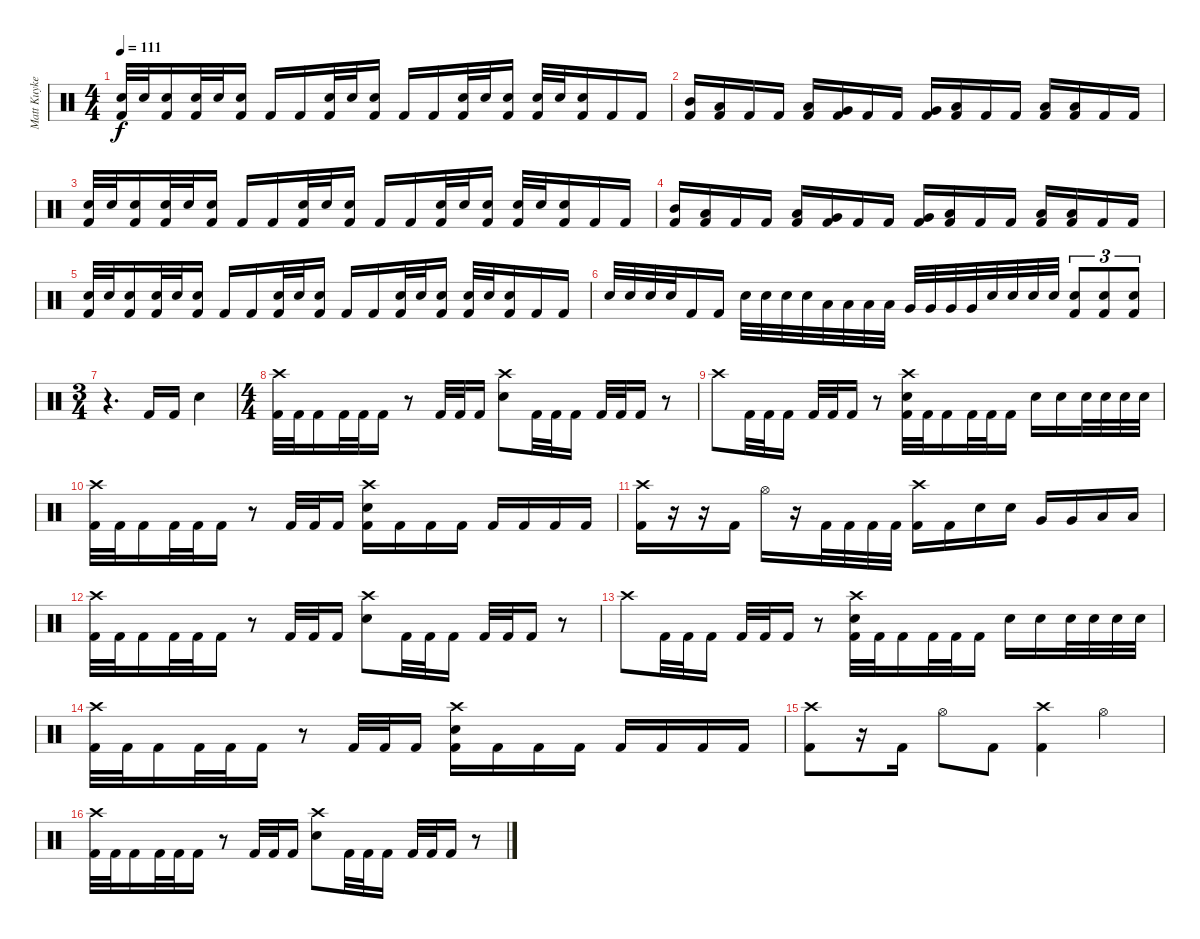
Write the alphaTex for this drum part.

\track ("Matt Kuykendall (Drums)" "Matt Kuyke") {instrument percussion}
\staff {score}
\articulation defaults
\ts (4 4)
\tempo 111
\clef neutral
\ks c
("Snare (hit) 2" "Kick (hit) 2").32{dy f} "Snare (hit) 2".32 ("Snare (hit) 2" "Kick (hit) 2").16 ("Snare (hit) 2" "Kick (hit) 2").32 "Snare (hit) 2".32 ("Snare (hit) 2" "Kick (hit) 2").16 "Kick (hit) 2".16 "Kick (hit) 2".16 ("Snare (hit) 2" "Kick (hit) 2").32 "Snare (hit) 2".32 ("Snare (hit) 2" "Kick (hit) 2").16 "Kick (hit) 2".16 "Kick (hit) 2".16 ("Snare (hit) 2" "Kick (hit) 2").32 "Snare (hit) 2".32 ("Snare (hit) 2" "Kick (hit) 2").16 ("Snare (hit) 2" "Kick (hit) 2").32 "Snare (hit) 2".32 ("Snare (hit) 2" "Kick (hit) 2").16 "Kick (hit) 2".16 "Kick (hit) 2".16 |
("Mid Tom (hit)" "Kick (hit) 2").16 ("Low Tom (hit)" "Kick (hit) 2").16 "Kick (hit) 2".16 "Kick (hit) 2".16 ("Low Tom (hit)" "Kick (hit) 2").16 ("Very Low Tom (hit)" "Kick (hit) 2").16 "Kick (hit) 2".16 "Kick (hit) 2".16 ("Very Low Tom (hit)" "Kick (hit) 2").16 ("Low Floor Tom (hit)" "Kick (hit) 2").16 "Kick (hit) 2".16 "Kick (hit) 2".16 ("Low Floor Tom (hit)" "Kick (hit) 2").16 ("Low Floor Tom (hit)" "Kick (hit) 2").16 "Kick (hit) 2".16 "Kick (hit) 2".16 |
("Snare (hit) 2" "Kick (hit) 2").32 "Snare (hit) 2".32 ("Snare (hit) 2" "Kick (hit) 2").16 ("Snare (hit) 2" "Kick (hit) 2").32 "Snare (hit) 2".32 ("Snare (hit) 2" "Kick (hit) 2").16 "Kick (hit) 2".16 "Kick (hit) 2".16 ("Snare (hit) 2" "Kick (hit) 2").32 "Snare (hit) 2".32 ("Snare (hit) 2" "Kick (hit) 2").16 "Kick (hit) 2".16 "Kick (hit) 2".16 ("Snare (hit) 2" "Kick (hit) 2").32 "Snare (hit) 2".32 ("Snare (hit) 2" "Kick (hit) 2").16 ("Snare (hit) 2" "Kick (hit) 2").32 "Snare (hit) 2".32 ("Snare (hit) 2" "Kick (hit) 2").16 "Kick (hit) 2".16 "Kick (hit) 2".16 |
("Mid Tom (hit)" "Kick (hit) 2").16 ("Low Tom (hit)" "Kick (hit) 2").16 "Kick (hit) 2".16 "Kick (hit) 2".16 ("Low Tom (hit)" "Kick (hit) 2").16 ("Very Low Tom (hit)" "Kick (hit) 2").16 "Kick (hit) 2".16 "Kick (hit) 2".16 ("Very Low Tom (hit)" "Kick (hit) 2").16 ("Low Floor Tom (hit)" "Kick (hit) 2").16 "Kick (hit) 2".16 "Kick (hit) 2".16 ("Low Floor Tom (hit)" "Kick (hit) 2").16 ("Low Floor Tom (hit)" "Kick (hit) 2").16 "Kick (hit) 2".16 "Kick (hit) 2".16 |
("Snare (hit) 2" "Kick (hit) 2").32 "Snare (hit) 2".32 ("Snare (hit) 2" "Kick (hit) 2").16 ("Snare (hit) 2" "Kick (hit) 2").32 "Snare (hit) 2".32 ("Snare (hit) 2" "Kick (hit) 2").16 "Kick (hit) 2".16 "Kick (hit) 2".16 ("Snare (hit) 2" "Kick (hit) 2").32 "Snare (hit) 2".32 ("Snare (hit) 2" "Kick (hit) 2").16 "Kick (hit) 2".16 "Kick (hit) 2".16 ("Snare (hit) 2" "Kick (hit) 2").32 "Snare (hit) 2".32 ("Snare (hit) 2" "Kick (hit) 2").16 ("Snare (hit) 2" "Kick (hit) 2").32 "Snare (hit) 2".32 ("Snare (hit) 2" "Kick (hit) 2").16 "Kick (hit) 2".16 "Kick (hit) 2".16 |
"Snare (hit) 2".32 "Snare (hit) 2".32 "Snare (hit) 2".32 "Snare (hit) 2".32 "Kick (hit) 2".16 "Kick (hit) 2".16 "Snare (hit) 2".32 "Snare (hit) 2".32 "Snare (hit) 2".32 "Snare (hit) 2".32 "Low Floor Tom (hit)".32 "Low Floor Tom (hit)".32 "Low Floor Tom (hit)".32 "Low Floor Tom (hit)".32 "Very Low Tom (hit)".32 "Very Low Tom (hit)".32 "Very Low Tom (hit)".32 "Very Low Tom (hit)".32 "Snare (hit) 2".32 "Snare (hit) 2".32 "Snare (hit) 2".32 "Snare (hit) 2".32 ("Snare (hit) 2" "Kick (hit) 2").8{tu (3 2)} ("Snare (hit) 2" "Kick (hit) 2").8{tu (3 2)} ("Snare (hit) 2" "Kick (hit) 2").8{tu (3 2)} |
\ts (3 4)
r.4{d} "Kick (hit) 2".16 "Kick (hit) 2".16 "Snare (hit) 2".4 |
\ts (4 4)
("Crash high (hit)" "Kick (hit) 2").32 "Kick (hit) 2".32 "Kick (hit) 2".16 "Kick (hit) 2".32 "Kick (hit) 2".32 "Kick (hit) 2".16 r.8 "Kick (hit) 2".32 "Kick (hit) 2".32 "Kick (hit) 2".16 ("Crash high (hit)" "Snare (hit) 2").8 "Kick (hit) 2".32 "Kick (hit) 2".32 "Kick (hit) 2".16 "Kick (hit) 2".32 "Kick (hit) 2".32 "Kick (hit) 2".16 r.8 |
"Crash high (hit)".8 "Kick (hit) 2".32 "Kick (hit) 2".32 "Kick (hit) 2".16 "Kick (hit) 2".32 "Kick (hit) 2".32 "Kick (hit) 2".16 r.8 ("Crash high (hit)" "Snare (hit) 2" "Kick (hit) 2").32 "Kick (hit) 2".32 "Kick (hit) 2".16 "Kick (hit) 2".32 "Kick (hit) 2".32 "Kick (hit) 2".16 "Snare (hit) 2".16 "Snare (hit) 2".16 "Snare (hit) 2".32 "Snare (hit) 2".32 "Snare (hit) 2".32 "Snare (hit) 2".32 |
("Crash high (hit)" "Kick (hit) 2").32 "Kick (hit) 2".32 "Kick (hit) 2".16 "Kick (hit) 2".32 "Kick (hit) 2".32 "Kick (hit) 2".16 r.8 "Kick (hit) 2".32 "Kick (hit) 2".32 "Kick (hit) 2".16 ("Crash high (hit)" "Snare (hit) 2" "Kick (hit) 2").16 "Kick (hit) 2".16 "Kick (hit) 2".16 "Kick (hit) 2".16 "Kick (hit) 2".16 "Kick (hit) 2".16 "Kick (hit) 2".16 "Kick (hit) 2".16 |
("Crash high (hit)" "Kick (hit) 2").16 r.16 r.16 "Kick (hit) 2".16 "Hi-Hat (open)".16 r.16 "Kick (hit) 2".32 "Kick (hit) 2".32 "Kick (hit) 2".32 "Kick (hit) 2".32 ("Crash high (hit)" "Kick (hit) 2").16 "Kick (hit) 2".16 "Snare (hit) 2".16 "Snare (hit) 2".16 "Very Low Tom (hit)".16 "Very Low Tom (hit)".16 "Low Floor Tom (hit)".16 "Low Floor Tom (hit)".16 |
("Crash high (hit)" "Kick (hit) 2").32 "Kick (hit) 2".32 "Kick (hit) 2".16 "Kick (hit) 2".32 "Kick (hit) 2".32 "Kick (hit) 2".16 r.8 "Kick (hit) 2".32 "Kick (hit) 2".32 "Kick (hit) 2".16 ("Crash high (hit)" "Snare (hit) 2").8 "Kick (hit) 2".32 "Kick (hit) 2".32 "Kick (hit) 2".16 "Kick (hit) 2".32 "Kick (hit) 2".32 "Kick (hit) 2".16 r.8 |
"Crash high (hit)".8 "Kick (hit) 2".32 "Kick (hit) 2".32 "Kick (hit) 2".16 "Kick (hit) 2".32 "Kick (hit) 2".32 "Kick (hit) 2".16 r.8 ("Crash high (hit)" "Snare (hit) 2" "Kick (hit) 2").32 "Kick (hit) 2".32 "Kick (hit) 2".16 "Kick (hit) 2".32 "Kick (hit) 2".32 "Kick (hit) 2".16 "Snare (hit) 2".16 "Snare (hit) 2".16 "Snare (hit) 2".32 "Snare (hit) 2".32 "Snare (hit) 2".32 "Snare (hit) 2".32 |
("Crash high (hit)" "Kick (hit) 2").32 "Kick (hit) 2".32 "Kick (hit) 2".16 "Kick (hit) 2".32 "Kick (hit) 2".32 "Kick (hit) 2".16 r.8 "Kick (hit) 2".32 "Kick (hit) 2".32 "Kick (hit) 2".16 ("Crash high (hit)" "Snare (hit) 2" "Kick (hit) 2").16 "Kick (hit) 2".16 "Kick (hit) 2".16 "Kick (hit) 2".16 "Kick (hit) 2".16 "Kick (hit) 2".16 "Kick (hit) 2".16 "Kick (hit) 2".16 |
("Crash high (hit)" "Kick (hit) 2").8 r.16 "Kick (hit) 2".16 "Hi-Hat (open)".8 "Kick (hit) 2".8 ("Crash high (hit)" "Kick (hit) 2").4 "Hi-Hat (open)".4 |
("Crash high (hit)" "Kick (hit) 2").32 "Kick (hit) 2".32 "Kick (hit) 2".16 "Kick (hit) 2".32 "Kick (hit) 2".32 "Kick (hit) 2".16 r.8 "Kick (hit) 2".32 "Kick (hit) 2".32 "Kick (hit) 2".16 ("Crash high (hit)" "Snare (hit) 2").8 "Kick (hit) 2".32 "Kick (hit) 2".32 "Kick (hit) 2".16 "Kick (hit) 2".32 "Kick (hit) 2".32 "Kick (hit) 2".16 r.8
